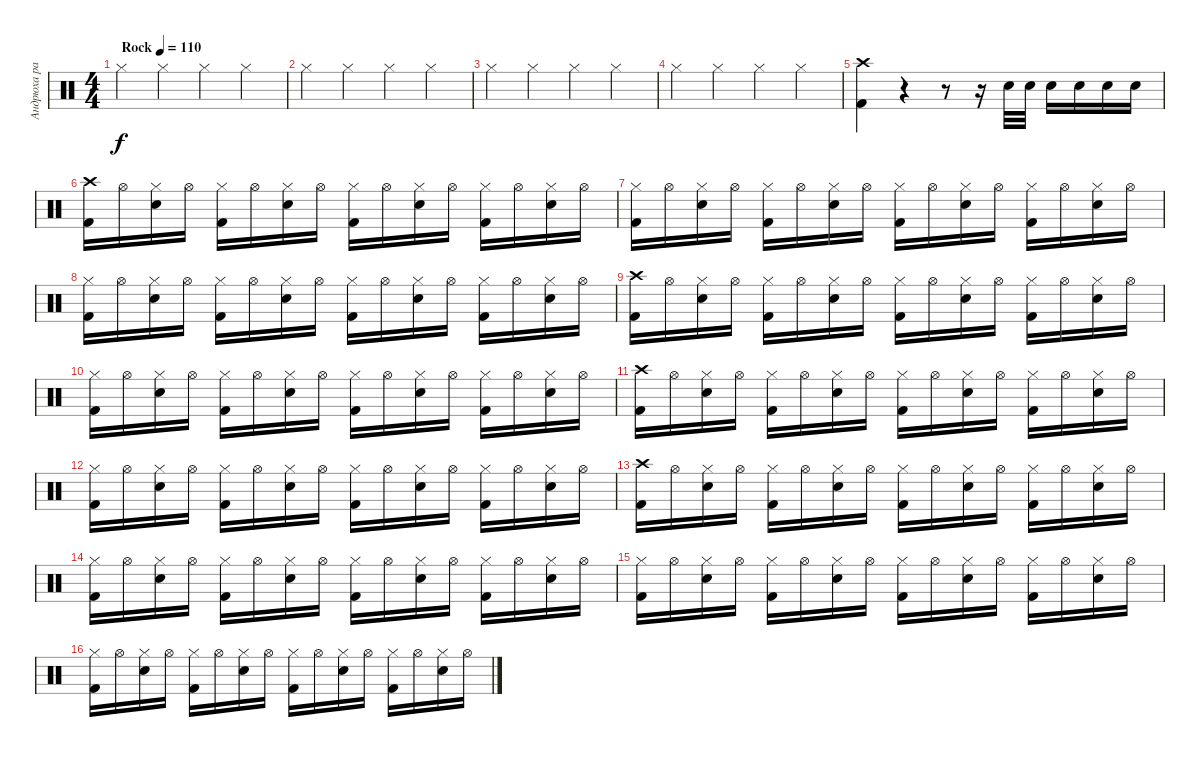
\track ("Андрюха радостный" "Андрюха ра") {instrument percussion}
\staff {score}
\articulation defaults
\ts (4 4)
\tempo (110 "Rock")
\clef neutral
\ks c "Hi-Hat (closed)".4{dy f} "Hi-Hat (closed)".4 "Hi-Hat (closed)".4 "Hi-Hat (closed)".4
|
"Hi-Hat (closed)".4 "Hi-Hat (closed)".4 "Hi-Hat (closed)".4 "Hi-Hat (closed)".4 |
"Hi-Hat (closed)".4 "Hi-Hat (closed)".4 "Hi-Hat (closed)".4 "Hi-Hat (closed)".4 |
"Hi-Hat (closed)".4 "Hi-Hat (closed)".4 "Hi-Hat (closed)".4 "Hi-Hat (closed)".4 |
("Crash high (hit)" "Kick (hit) 2").4 r.4 r.8 r.16 "Electric Snare (hit)".32 "Electric Snare (hit)".32 "Electric Snare (hit)".16 "Electric Snare (hit)".16 "Electric Snare (hit)".16 "Electric Snare (hit)".16 |
("Crash high (hit)" "Kick (hit) 2").16 "Hi-Hat (open)".16 ("Hi-Hat (closed)" "Electric Snare (hit)").16 "Hi-Hat (open)".16 ("Hi-Hat (closed)" "Kick (hit) 2").16 "Hi-Hat (open)".16 ("Hi-Hat (closed)" "Electric Snare (hit)").16 "Hi-Hat (open)".16 ("Hi-Hat (closed)" "Kick (hit) 2").16 "Hi-Hat (open)".16 ("Hi-Hat (closed)" "Electric Snare (hit)").16 "Hi-Hat (open)".16 ("Hi-Hat (closed)" "Kick (hit) 2").16 "Hi-Hat (open)".16 ("Hi-Hat (closed)" "Electric Snare (hit)").16 "Hi-Hat (open)".16 |
("Hi-Hat (closed)" "Kick (hit) 2").16 "Hi-Hat (open)".16 ("Hi-Hat (closed)" "Electric Snare (hit)").16 "Hi-Hat (open)".16 ("Hi-Hat (closed)" "Kick (hit) 2").16 "Hi-Hat (open)".16 ("Hi-Hat (closed)" "Electric Snare (hit)").16 "Hi-Hat (open)".16 ("Hi-Hat (closed)" "Kick (hit) 2").16 "Hi-Hat (open)".16 ("Hi-Hat (closed)" "Electric Snare (hit)").16 "Hi-Hat (open)".16 ("Hi-Hat (closed)" "Kick (hit) 2").16 "Hi-Hat (open)".16 ("Hi-Hat (closed)" "Electric Snare (hit)").16 "Hi-Hat (open)".16 |
("Hi-Hat (closed)" "Kick (hit) 2").16 "Hi-Hat (open)".16 ("Hi-Hat (closed)" "Electric Snare (hit)").16 "Hi-Hat (open)".16 ("Hi-Hat (closed)" "Kick (hit) 2").16 "Hi-Hat (open)".16 ("Hi-Hat (closed)" "Electric Snare (hit)").16 "Hi-Hat (open)".16 ("Hi-Hat (closed)" "Kick (hit) 2").16 "Hi-Hat (open)".16 ("Hi-Hat (closed)" "Electric Snare (hit)").16 "Hi-Hat (open)".16 ("Hi-Hat (closed)" "Kick (hit) 2").16 "Hi-Hat (open)".16 ("Hi-Hat (closed)" "Electric Snare (hit)").16 "Hi-Hat (open)".16 |
("Crash high (hit)" "Kick (hit) 2").16 "Hi-Hat (open)".16 ("Hi-Hat (closed)" "Electric Snare (hit)").16 "Hi-Hat (open)".16 ("Hi-Hat (closed)" "Kick (hit) 2").16 "Hi-Hat (open)".16 ("Hi-Hat (closed)" "Electric Snare (hit)").16 "Hi-Hat (open)".16 ("Hi-Hat (closed)" "Kick (hit) 2").16 "Hi-Hat (open)".16 ("Hi-Hat (closed)" "Electric Snare (hit)").16 "Hi-Hat (open)".16 ("Hi-Hat (closed)" "Kick (hit) 2").16 "Hi-Hat (open)".16 ("Hi-Hat (closed)" "Electric Snare (hit)").16 "Hi-Hat (open)".16 |
("Hi-Hat (closed)" "Kick (hit) 2").16 "Hi-Hat (open)".16 ("Hi-Hat (closed)" "Electric Snare (hit)").16 "Hi-Hat (open)".16 ("Hi-Hat (closed)" "Kick (hit) 2").16 "Hi-Hat (open)".16 ("Hi-Hat (closed)" "Electric Snare (hit)").16 "Hi-Hat (open)".16 ("Hi-Hat (closed)" "Kick (hit) 2").16 "Hi-Hat (open)".16 ("Hi-Hat (closed)" "Electric Snare (hit)").16 "Hi-Hat (open)".16 ("Hi-Hat (closed)" "Kick (hit) 2").16 "Hi-Hat (open)".16 ("Hi-Hat (closed)" "Electric Snare (hit)").16 "Hi-Hat (open)".16 |
("Crash high (hit)" "Kick (hit) 2").16 "Hi-Hat (open)".16 ("Hi-Hat (closed)" "Electric Snare (hit)").16 "Hi-Hat (open)".16 ("Hi-Hat (closed)" "Kick (hit) 2").16 "Hi-Hat (open)".16 ("Hi-Hat (closed)" "Electric Snare (hit)").16 "Hi-Hat (open)".16 ("Hi-Hat (closed)" "Kick (hit) 2").16 "Hi-Hat (open)".16 ("Hi-Hat (closed)" "Electric Snare (hit)").16 "Hi-Hat (open)".16 ("Hi-Hat (closed)" "Kick (hit) 2").16 "Hi-Hat (open)".16 ("Hi-Hat (closed)" "Electric Snare (hit)").16 "Hi-Hat (open)".16 |
("Hi-Hat (closed)" "Kick (hit) 2").16 "Hi-Hat (open)".16 ("Hi-Hat (closed)" "Electric Snare (hit)").16 "Hi-Hat (open)".16 ("Hi-Hat (closed)" "Kick (hit) 2").16 "Hi-Hat (open)".16 ("Hi-Hat (closed)" "Electric Snare (hit)").16 "Hi-Hat (open)".16 ("Hi-Hat (closed)" "Kick (hit) 2").16 "Hi-Hat (open)".16 ("Hi-Hat (closed)" "Electric Snare (hit)").16 "Hi-Hat (open)".16 ("Hi-Hat (closed)" "Kick (hit) 2").16 "Hi-Hat (open)".16 ("Hi-Hat (closed)" "Electric Snare (hit)").16 "Hi-Hat (open)".16 |
("Crash high (hit)" "Kick (hit) 2").16 "Hi-Hat (open)".16 ("Hi-Hat (closed)" "Electric Snare (hit)").16 "Hi-Hat (open)".16 ("Hi-Hat (closed)" "Kick (hit) 2").16 "Hi-Hat (open)".16 ("Hi-Hat (closed)" "Electric Snare (hit)").16 "Hi-Hat (open)".16 ("Hi-Hat (closed)" "Kick (hit) 2").16 "Hi-Hat (open)".16 ("Hi-Hat (closed)" "Electric Snare (hit)").16 "Hi-Hat (open)".16 ("Hi-Hat (closed)" "Kick (hit) 2").16 "Hi-Hat (open)".16 ("Hi-Hat (closed)" "Electric Snare (hit)").16 "Hi-Hat (open)".16 |
("Hi-Hat (closed)" "Kick (hit) 2").16 "Hi-Hat (open)".16 ("Hi-Hat (closed)" "Electric Snare (hit)").16 "Hi-Hat (open)".16 ("Hi-Hat (closed)" "Kick (hit) 2").16 "Hi-Hat (open)".16 ("Hi-Hat (closed)" "Electric Snare (hit)").16 "Hi-Hat (open)".16 ("Hi-Hat (closed)" "Kick (hit) 2").16 "Hi-Hat (open)".16 ("Hi-Hat (closed)" "Electric Snare (hit)").16 "Hi-Hat (open)".16 ("Hi-Hat (closed)" "Kick (hit) 2").16 "Hi-Hat (open)".16 ("Hi-Hat (closed)" "Electric Snare (hit)").16 "Hi-Hat (open)".16 |
("Hi-Hat (closed)" "Kick (hit) 2").16 "Hi-Hat (open)".16 ("Hi-Hat (closed)" "Electric Snare (hit)").16 "Hi-Hat (open)".16 ("Hi-Hat (closed)" "Kick (hit) 2").16 "Hi-Hat (open)".16 ("Hi-Hat (closed)" "Electric Snare (hit)").16 "Hi-Hat (open)".16 ("Hi-Hat (closed)" "Kick (hit) 2").16 "Hi-Hat (open)".16 ("Hi-Hat (closed)" "Electric Snare (hit)").16 "Hi-Hat (open)".16 ("Hi-Hat (closed)" "Kick (hit) 2").16 "Hi-Hat (open)".16 ("Hi-Hat (closed)" "Electric Snare (hit)").16 "Hi-Hat (open)".16 |
("Hi-Hat (closed)" "Kick (hit) 2").16 "Hi-Hat (open)".16 ("Hi-Hat (closed)" "Electric Snare (hit)").16 "Hi-Hat (open)".16 ("Hi-Hat (closed)" "Kick (hit) 2").16 "Hi-Hat (open)".16 ("Hi-Hat (closed)" "Electric Snare (hit)").16 "Hi-Hat (open)".16 ("Hi-Hat (closed)" "Kick (hit) 2").16 "Hi-Hat (open)".16 ("Hi-Hat (closed)" "Electric Snare (hit)").16 "Hi-Hat (open)".16 ("Hi-Hat (closed)" "Kick (hit) 2").16 "Hi-Hat (open)".16 ("Hi-Hat (closed)" "Electric Snare (hit)").16 "Hi-Hat (open)".16
